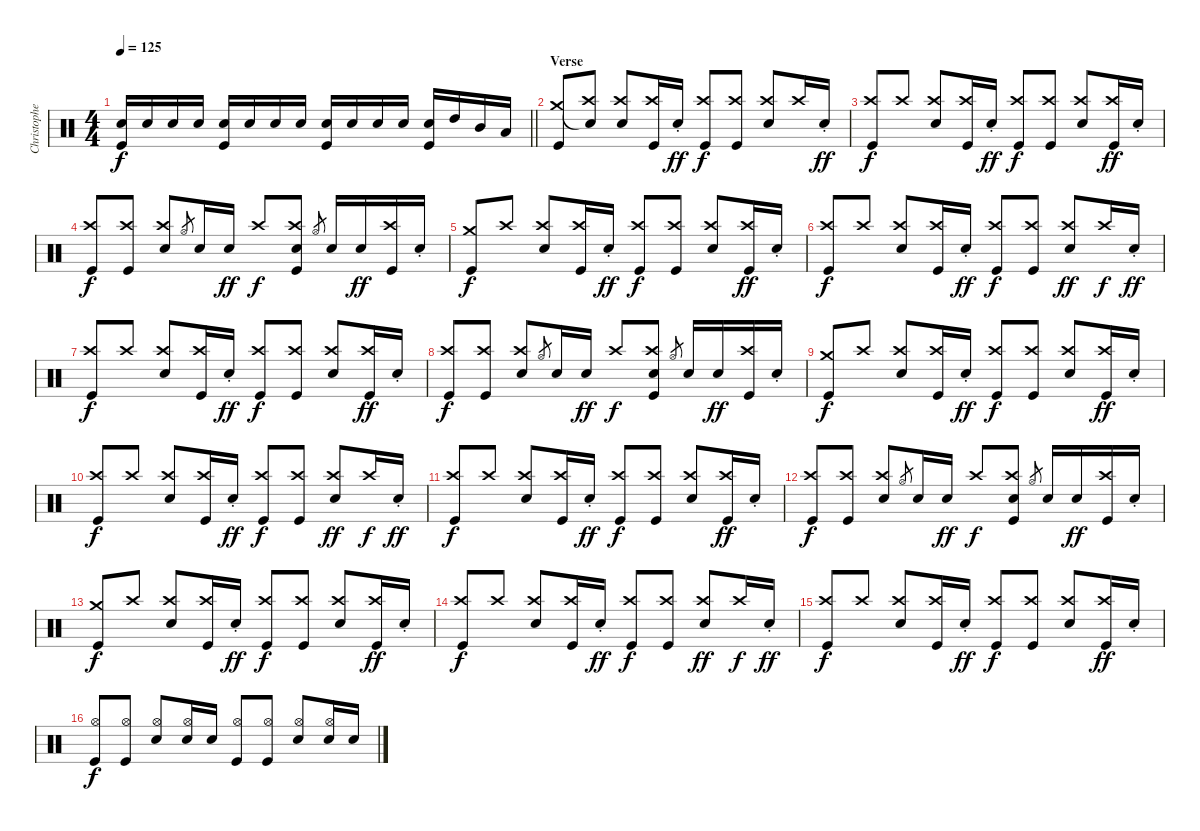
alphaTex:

\track ("Christopher - Drums" "Christophe") {instrument percussion}
\staff {score}
\articulation defaults
\ts (4 4)
\tempo 125
\clef neutral
\barLineRight lightlight
\ks c
("Electric Snare (hit)" "Kick (hit)").16{dy f beam Up} "Electric Snare (hit)".16{beam Up} "Electric Snare (hit)".16{beam Up} "Electric Snare (hit)".16{beam Up} ("Electric Snare (hit)" "Kick (hit)").16{beam Up} "Electric Snare (hit)".16{beam Up} "Electric Snare (hit)".16{beam Up} "Electric Snare (hit)".16{beam Up} ("Electric Snare (hit)" "Kick (hit)").16{beam Up} "Electric Snare (hit)".16{beam Up} "Electric Snare (hit)".16{beam Up} "Electric Snare (hit)".16{beam Up} ("Electric Snare (hit)" "Kick (hit)").16{beam Up} "High Tom (hit)".16{beam Up} "Mid Tom (hit)".16{beam Up} "Low Floor Tom (hit)".16{beam Up} |
\section ("" "Verse")
("Crash medium (hit)" "Kick (hit)").8{beam Up} ("Snare (hit)"{t} "Crash high (hit)").8{beam Up} ("Crash high (hit)" "Electric Snare (hit)").8{beam Up} ("Crash high (hit)" "Kick (hit)").16{beam Up} "Electric Snare (hit)"{st}.16{dy ff beam Up} ("Crash high (hit)" "Kick (hit)").8{dy f beam Up} ("Crash high (hit)" "Kick (hit)").8{beam Up} ("Crash high (hit)" "Electric Snare (hit)").8{beam Up} "Crash high (hit)".16{beam Up} "Electric Snare (hit)"{st}.16{dy ff beam Up} |
("Crash high (hit)" "Kick (hit)").8{dy f beam Up} "Crash high (hit)".8{beam Up} ("Crash high (hit)" "Electric Snare (hit)").8{beam Up} ("Crash high (hit)" "Kick (hit)").16{beam Up} "Electric Snare (hit)"{st}.16{dy ff beam Up} ("Crash high (hit)" "Kick (hit)").8{dy f beam Up} ("Crash high (hit)" "Kick (hit)").8{beam Up} ("Crash high (hit)" "Electric Snare (hit)").8{beam Up} ("Crash high (hit)" "Kick (hit)").16{dy ff beam Up} "Electric Snare (hit)"{st}.16{beam Up} |
("Crash high (hit)" "Kick (hit)").8{dy f beam Up} ("Crash high (hit)" "Kick (hit)").8{beam Up} ("Crash high (hit)" "Electric Snare (hit)").8{beam Up} "Hi-Hat (open)".8{gr} "Electric Snare (hit)".16{beam Up} "Electric Snare (hit)".16{dy ff beam Up} "Crash high (hit)".8{dy f beam Up} ("Crash high (hit)" "Electric Snare (hit)" "Kick (hit)").8{beam Up} "Hi-Hat (open)".8{gr} "Electric Snare (hit)".16{beam Up} "Electric Snare (hit)".16{dy ff beam Up} ("Crash high (hit)" "Kick (hit)").16{beam Up} "Electric Snare (hit)"{st}.16{beam Up} |
("Crash medium (hit)" "Kick (hit)").8{dy f beam Up} "Crash high (hit)".8{beam Up} ("Crash high (hit)" "Electric Snare (hit)").8{beam Up} ("Crash high (hit)" "Kick (hit)").16{beam Up} "Electric Snare (hit)"{st}.16{dy ff beam Up} ("Crash high (hit)" "Kick (hit)").8{dy f beam Up} ("Crash high (hit)" "Kick (hit)").8{beam Up} ("Crash high (hit)" "Electric Snare (hit)").8{beam Up} ("Crash high (hit)" "Kick (hit)").16{dy ff beam Up} "Electric Snare (hit)"{st}.16{beam Up} |
("Crash high (hit)" "Kick (hit)").8{dy f beam Up} "Crash high (hit)".8{beam Up} ("Crash high (hit)" "Electric Snare (hit)").8{beam Up} ("Crash high (hit)" "Kick (hit)").16{beam Up} "Electric Snare (hit)"{st}.16{dy ff beam Up} ("Crash high (hit)" "Kick (hit)").8{dy f beam Up} ("Crash high (hit)" "Kick (hit)").8{beam Up} ("Crash high (hit)" "Electric Snare (hit)").8{dy ff beam Up} "Crash high (hit)".16{dy f beam Up} "Electric Snare (hit)"{st}.16{dy ff beam Up} |
("Crash high (hit)" "Kick (hit)").8{dy f beam Up} "Crash high (hit)".8{beam Up} ("Crash high (hit)" "Electric Snare (hit)").8{beam Up} ("Crash high (hit)" "Kick (hit)").16{beam Up} "Electric Snare (hit)"{st}.16{dy ff beam Up} ("Crash high (hit)" "Kick (hit)").8{dy f beam Up} ("Crash high (hit)" "Kick (hit)").8{beam Up} ("Crash high (hit)" "Electric Snare (hit)").8{beam Up} ("Crash high (hit)" "Kick (hit)").16{dy ff beam Up} "Electric Snare (hit)"{st}.16{beam Up} |
("Crash high (hit)" "Kick (hit)").8{dy f beam Up} ("Crash high (hit)" "Kick (hit)").8{beam Up} ("Crash high (hit)" "Electric Snare (hit)").8{beam Up} "Hi-Hat (open)".8{gr} "Electric Snare (hit)".16{beam Up} "Electric Snare (hit)".16{dy ff beam Up} "Crash high (hit)".8{dy f beam Up} ("Crash high (hit)" "Electric Snare (hit)" "Kick (hit)").8{beam Up} "Hi-Hat (open)".8{gr} "Electric Snare (hit)".16{beam Up} "Electric Snare (hit)".16{dy ff beam Up} ("Crash high (hit)" "Kick (hit)").16{beam Up} "Electric Snare (hit)"{st}.16{beam Up} |
("Crash medium (hit)" "Kick (hit)").8{dy f beam Up} "Crash high (hit)".8{beam Up} ("Crash high (hit)" "Electric Snare (hit)").8{beam Up} ("Crash high (hit)" "Kick (hit)").16{beam Up} "Electric Snare (hit)"{st}.16{dy ff beam Up} ("Crash high (hit)" "Kick (hit)").8{dy f beam Up} ("Crash high (hit)" "Kick (hit)").8{beam Up} ("Crash high (hit)" "Electric Snare (hit)").8{beam Up} ("Crash high (hit)" "Kick (hit)").16{dy ff beam Up} "Electric Snare (hit)"{st}.16{beam Up} |
("Crash high (hit)" "Kick (hit)").8{dy f beam Up} "Crash high (hit)".8{beam Up} ("Crash high (hit)" "Electric Snare (hit)").8{beam Up} ("Crash high (hit)" "Kick (hit)").16{beam Up} "Electric Snare (hit)"{st}.16{dy ff beam Up} ("Crash high (hit)" "Kick (hit)").8{dy f beam Up} ("Crash high (hit)" "Kick (hit)").8{beam Up} ("Crash high (hit)" "Electric Snare (hit)").8{dy ff beam Up} "Crash high (hit)".16{dy f beam Up} "Electric Snare (hit)"{st}.16{dy ff beam Up} |
("Crash high (hit)" "Kick (hit)").8{dy f beam Up} "Crash high (hit)".8{beam Up} ("Crash high (hit)" "Electric Snare (hit)").8{beam Up} ("Crash high (hit)" "Kick (hit)").16{beam Up} "Electric Snare (hit)"{st}.16{dy ff beam Up} ("Crash high (hit)" "Kick (hit)").8{dy f beam Up} ("Crash high (hit)" "Kick (hit)").8{beam Up} ("Crash high (hit)" "Electric Snare (hit)").8{beam Up} ("Crash high (hit)" "Kick (hit)").16{dy ff beam Up} "Electric Snare (hit)"{st}.16{beam Up} |
("Crash high (hit)" "Kick (hit)").8{dy f beam Up} ("Crash high (hit)" "Kick (hit)").8{beam Up} ("Crash high (hit)" "Electric Snare (hit)").8{beam Up} "Hi-Hat (open)".8{gr} "Electric Snare (hit)".16{beam Up} "Electric Snare (hit)".16{dy ff beam Up} "Crash high (hit)".8{dy f beam Up} ("Crash high (hit)" "Electric Snare (hit)" "Kick (hit)").8{beam Up} "Hi-Hat (open)".8{gr} "Electric Snare (hit)".16{beam Up} "Electric Snare (hit)".16{dy ff beam Up} ("Crash high (hit)" "Kick (hit)").16{beam Up} "Electric Snare (hit)"{st}.16{beam Up} |
("Crash medium (hit)" "Kick (hit)").8{dy f beam Up} "Crash high (hit)".8{beam Up} ("Crash high (hit)" "Electric Snare (hit)").8{beam Up} ("Crash high (hit)" "Kick (hit)").16{beam Up} "Electric Snare (hit)"{st}.16{dy ff beam Up} ("Crash high (hit)" "Kick (hit)").8{dy f beam Up} ("Crash high (hit)" "Kick (hit)").8{beam Up} ("Crash high (hit)" "Electric Snare (hit)").8{beam Up} ("Crash high (hit)" "Kick (hit)").16{dy ff beam Up} "Electric Snare (hit)"{st}.16{beam Up} |
("Crash high (hit)" "Kick (hit)").8{dy f beam Up} "Crash high (hit)".8{beam Up} ("Crash high (hit)" "Electric Snare (hit)").8{beam Up} ("Crash high (hit)" "Kick (hit)").16{beam Up} "Electric Snare (hit)"{st}.16{dy ff beam Up} ("Crash high (hit)" "Kick (hit)").8{dy f beam Up} ("Crash high (hit)" "Kick (hit)").8{beam Up} ("Crash high (hit)" "Electric Snare (hit)").8{dy ff beam Up} "Crash high (hit)".16{dy f beam Up} "Electric Snare (hit)"{st}.16{dy ff beam Up} |
("Crash high (hit)" "Kick (hit)").8{dy f beam Up} "Crash high (hit)".8{beam Up} ("Crash high (hit)" "Electric Snare (hit)").8{beam Up} ("Crash high (hit)" "Kick (hit)").16{beam Up} "Electric Snare (hit)"{st}.16{dy ff beam Up} ("Crash high (hit)" "Kick (hit)").8{dy f beam Up} ("Crash high (hit)" "Kick (hit)").8{beam Up} ("Crash high (hit)" "Electric Snare (hit)").8{beam Up} ("Crash high (hit)" "Kick (hit)").16{dy ff beam Up} "Electric Snare (hit)"{st}.16{beam Up} |
("Hi-Hat (open)" "Kick (hit)").8{dy f beam Up} ("Hi-Hat (open)" "Kick (hit)").8{beam Up} ("Hi-Hat (open)" "Electric Snare (hit)").8{beam Up} ("Hi-Hat (open)" "Electric Snare (hit)").16{beam Up} "Electric Snare (hit)".16{beam Up} ("Hi-Hat (open)" "Kick (hit)").8{beam Up} ("Hi-Hat (open)" "Kick (hit)").8{beam Up} ("Hi-Hat (open)" "Electric Snare (hit)").8{beam Up} ("Hi-Hat (open)" "Electric Snare (hit)").16{beam Up} "Electric Snare (hit)".16{beam Up}
